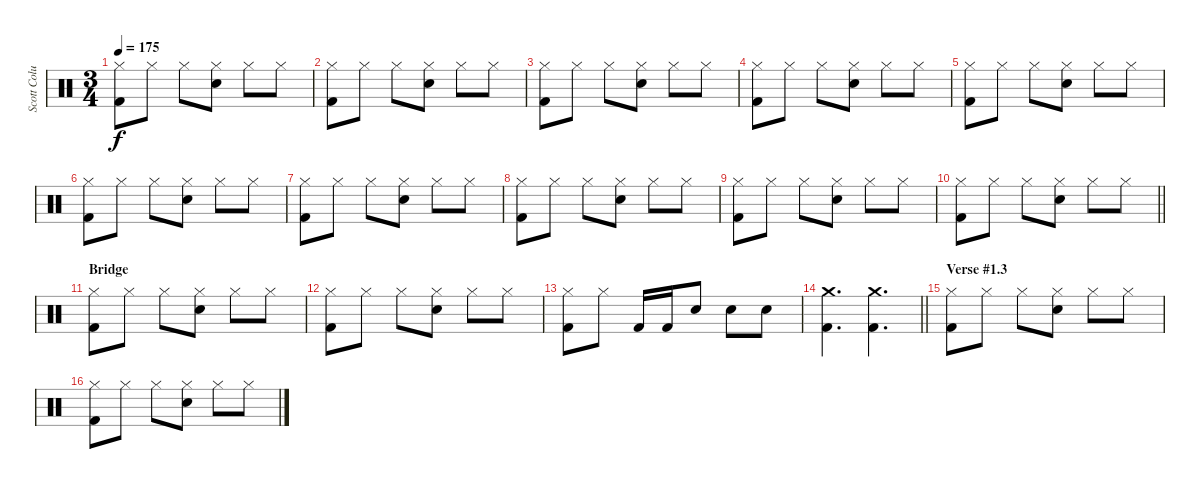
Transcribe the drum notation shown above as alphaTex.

\track ("Scott Columbus" "Scott Colu") {instrument percussion}
\staff {score}
\articulation defaults
\ts (3 4)
\tempo 175
\clef neutral
\ks c
("Kick (hit) 2" "Hi-Hat (closed)").8{dy f} "Hi-Hat (closed)".8 "Hi-Hat (closed)".8 ("Snare (hit) 2" "Hi-Hat (closed)").8 "Hi-Hat (closed)".8 "Hi-Hat (closed)".8 |
("Kick (hit) 2" "Hi-Hat (closed)").8 "Hi-Hat (closed)".8 "Hi-Hat (closed)".8 ("Snare (hit) 2" "Hi-Hat (closed)").8 "Hi-Hat (closed)".8 "Hi-Hat (closed)".8 |
("Kick (hit) 2" "Hi-Hat (closed)").8 "Hi-Hat (closed)".8 "Hi-Hat (closed)".8 ("Snare (hit) 2" "Hi-Hat (closed)").8 "Hi-Hat (closed)".8 "Hi-Hat (closed)".8 |
("Kick (hit) 2" "Hi-Hat (closed)").8 "Hi-Hat (closed)".8 "Hi-Hat (closed)".8 ("Snare (hit) 2" "Hi-Hat (closed)").8 "Hi-Hat (closed)".8 "Hi-Hat (closed)".8 |
("Kick (hit) 2" "Hi-Hat (closed)").8 "Hi-Hat (closed)".8 "Hi-Hat (closed)".8 ("Snare (hit) 2" "Hi-Hat (closed)").8 "Hi-Hat (closed)".8 "Hi-Hat (closed)".8 |
("Kick (hit) 2" "Hi-Hat (closed)").8 "Hi-Hat (closed)".8 "Hi-Hat (closed)".8 ("Snare (hit) 2" "Hi-Hat (closed)").8 "Hi-Hat (closed)".8 "Hi-Hat (closed)".8 |
("Kick (hit) 2" "Hi-Hat (closed)").8 "Hi-Hat (closed)".8 "Hi-Hat (closed)".8 ("Snare (hit) 2" "Hi-Hat (closed)").8 "Hi-Hat (closed)".8 "Hi-Hat (closed)".8 |
("Kick (hit) 2" "Hi-Hat (closed)").8 "Hi-Hat (closed)".8 "Hi-Hat (closed)".8 ("Snare (hit) 2" "Hi-Hat (closed)").8 "Hi-Hat (closed)".8 "Hi-Hat (closed)".8 |
("Kick (hit) 2" "Hi-Hat (closed)").8 "Hi-Hat (closed)".8 "Hi-Hat (closed)".8 ("Snare (hit) 2" "Hi-Hat (closed)").8 "Hi-Hat (closed)".8 "Hi-Hat (closed)".8 |
\barLineRight lightlight
("Kick (hit) 2" "Hi-Hat (closed)").8 "Hi-Hat (closed)".8 "Hi-Hat (closed)".8 ("Snare (hit) 2" "Hi-Hat (closed)").8 "Hi-Hat (closed)".8 "Hi-Hat (closed)".8 |
\section ("" "Bridge")
("Kick (hit) 2" "Hi-Hat (closed)").8 "Hi-Hat (closed)".8 "Hi-Hat (closed)".8 ("Snare (hit) 2" "Hi-Hat (closed)").8 "Hi-Hat (closed)".8 "Hi-Hat (closed)".8 |
("Kick (hit) 2" "Hi-Hat (closed)").8 "Hi-Hat (closed)".8 "Hi-Hat (closed)".8 ("Snare (hit) 2" "Hi-Hat (closed)").8 "Hi-Hat (closed)".8 "Hi-Hat (closed)".8 |
("Kick (hit) 2" "Hi-Hat (closed)").8 "Hi-Hat (closed)".8 "Kick (hit) 2".16 "Kick (hit) 2".16 "Snare (hit) 2".8 "Snare (hit) 2".8 "Snare (hit) 2".8 |
\barLineRight lightlight
("Kick (hit) 2" "Crash medium (hit)").4{d} ("Kick (hit) 2" "Crash medium (hit)").4{d} |
\section ("" "Verse #1.3")
("Kick (hit) 2" "Hi-Hat (closed)").8 "Hi-Hat (closed)".8 "Hi-Hat (closed)".8 ("Snare (hit) 2" "Hi-Hat (closed)").8 "Hi-Hat (closed)".8 "Hi-Hat (closed)".8 |
("Kick (hit) 2" "Hi-Hat (closed)").8 "Hi-Hat (closed)".8 "Hi-Hat (closed)".8 ("Snare (hit) 2" "Hi-Hat (closed)").8 "Hi-Hat (closed)".8 "Hi-Hat (closed)".8
